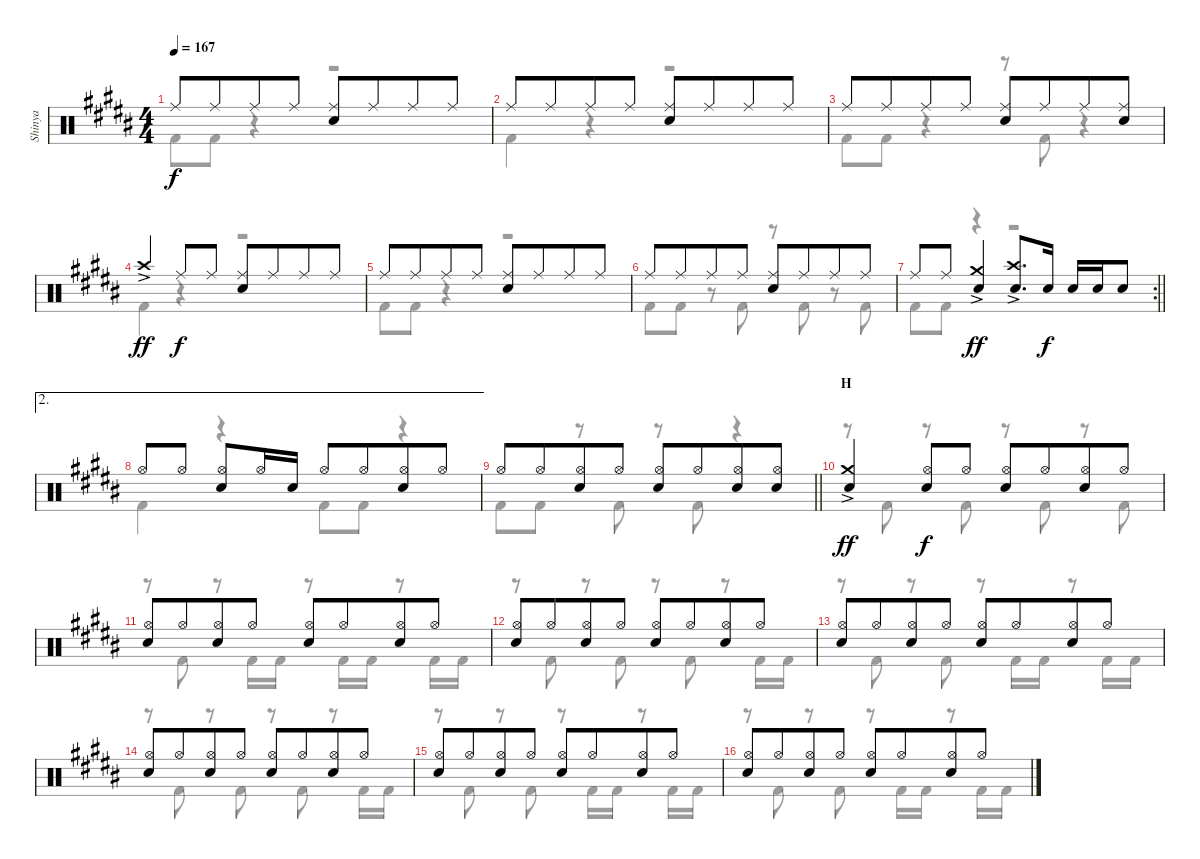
\track ("Shinya" "Shinya") {instrument percussion}
\staff {score}
\articulation defaults
\voice
\ts (4 4)
\tempo 167
\clef neutral
\ks g#minor "Ride (middle)".8{dy f} "Ride (middle)".8{beam merge} "Ride (middle)".8 "Ride (middle)".8
("Ride (middle)" "Snare (hit) 2").8 "Ride (middle)".8{beam merge} "Ride (middle)".8 "Ride (middle)".8 |
"Ride (middle)".8 "Ride (middle)".8{beam merge} "Ride (middle)".8 "Ride (middle)".8 ("Ride (middle)" "Snare (hit) 2").8 "Ride (middle)".8{beam merge} "Ride (middle)".8 "Ride (middle)".8 |
"Ride (middle)".8 "Ride (middle)".8{beam merge} "Ride (middle)".8 "Ride (middle)".8 ("Ride (middle)" "Snare (hit) 2").8 "Ride (middle)".8{beam merge} "Ride (middle)".8 ("Ride (middle)" "Snare (hit) 2").8 |
"Crash high (hit)"{ac}.4{dy ff} "Ride (middle)".8{dy f} "Ride (middle)".8 ("Ride (middle)" "Snare (hit) 2").8 "Ride (middle)".8{beam merge} "Ride (middle)".8 "Ride (middle)".8 |
"Ride (middle)".8 "Ride (middle)".8{beam merge} "Ride (middle)".8 "Ride (middle)".8 ("Ride (middle)" "Snare (hit) 2").8 "Ride (middle)".8{beam merge} "Ride (middle)".8 "Ride (middle)".8 |
"Ride (middle)".8 "Ride (middle)".8{beam merge} "Ride (middle)".8 "Ride (middle)".8 ("Ride (middle)" "Snare (hit) 2").8 "Ride (middle)".8{beam merge} "Ride (middle)".8 "Ride (middle)".8 |
\rc 2
\barLineRight lightlight "Ride (middle)".8 "Ride (middle)".8
("Crash medium (hit)"{ac} "Snare (hit) 2").4{dy ff} ("Crash high (hit)"{ac} "Snare (hit) 2").8{d} "Snare (hit) 2".16{dy f} "Snare (hit) 2".16 "Snare (hit) 2".16 "Snare (hit) 2".8 |
\ae 2
\section ("" "")
"Hi-Hat (open)".8 "Hi-Hat (open)".8 ("Hi-Hat (open)" "Snare (hit) 2").8 "Hi-Hat (open)".16 "Snare (hit) 2".16 "Hi-Hat (open)".8 "Hi-Hat (open)".8{beam merge} ("Hi-Hat (open)" "Snare (hit) 2").8 "Hi-Hat (open)".8 |
\barLineRight lightlight "Hi-Hat (open)".8 "Hi-Hat (open)".8{beam merge}
("Hi-Hat (open)" "Snare (hit) 2").8 "Hi-Hat (open)".8 ("Hi-Hat (open)" "Snare (hit) 2").8 "Hi-Hat (open)".8{beam merge} ("Hi-Hat (open)" "Snare (hit) 2").8 ("Hi-Hat (open)" "Snare (hit) 2").8 |
\section ("" "H")
("Crash medium (hit)"{ac} "Snare (hit) 2").4{dy ff} ("Hi-Hat (open)" "Snare (hit) 2").8{dy f} "Hi-Hat (open)".8 ("Hi-Hat (open)" "Snare (hit) 2").8 "Hi-Hat (open)".8{beam merge} ("Hi-Hat (open)" "Snare (hit) 2").8 "Hi-Hat (open)".8 |
("Hi-Hat (open)" "Snare (hit) 2").8 "Hi-Hat (open)".8{beam merge} ("Hi-Hat (open)" "Snare (hit) 2").8 "Hi-Hat (open)".8 ("Hi-Hat (open)" "Snare (hit) 2").8 "Hi-Hat (open)".8{beam merge} ("Hi-Hat (open)" "Snare (hit) 2").8 "Hi-Hat (open)".8 |
("Hi-Hat (open)" "Snare (hit) 2").8 "Hi-Hat (open)".8{beam merge} ("Hi-Hat (open)" "Snare (hit) 2").8 "Hi-Hat (open)".8 ("Hi-Hat (open)" "Snare (hit) 2").8 "Hi-Hat (open)".8{beam merge} ("Hi-Hat (open)" "Snare (hit) 2").8 "Hi-Hat (open)".8 |
("Hi-Hat (open)" "Snare (hit) 2").8 "Hi-Hat (open)".8{beam merge} ("Hi-Hat (open)" "Snare (hit) 2").8 "Hi-Hat (open)".8 ("Hi-Hat (open)" "Snare (hit) 2").8 "Hi-Hat (open)".8{beam merge} ("Hi-Hat (open)" "Snare (hit) 2").8 "Hi-Hat (open)".8 |
("Hi-Hat (open)" "Snare (hit) 2").8 "Hi-Hat (open)".8{beam merge} ("Hi-Hat (open)" "Snare (hit) 2").8 "Hi-Hat (open)".8 ("Hi-Hat (open)" "Snare (hit) 2").8 "Hi-Hat (open)".8{beam merge} ("Hi-Hat (open)" "Snare (hit) 2").8 "Hi-Hat (open)".8 |
("Hi-Hat (open)" "Snare (hit) 2").8 "Hi-Hat (open)".8{beam merge} ("Hi-Hat (open)" "Snare (hit) 2").8 "Hi-Hat (open)".8 ("Hi-Hat (open)" "Snare (hit) 2").8 "Hi-Hat (open)".8{beam merge} ("Hi-Hat (open)" "Snare (hit) 2").8 "Hi-Hat (open)".8 |
("Hi-Hat (open)" "Snare (hit) 2").8 "Hi-Hat (open)".8{beam merge} ("Hi-Hat (open)" "Snare (hit) 2").8 "Hi-Hat (open)".8 ("Hi-Hat (open)" "Snare (hit) 2").8 "Hi-Hat (open)".8{beam merge} ("Hi-Hat (open)" "Snare (hit) 2").8 "Hi-Hat (open)".8
\voice
\clef neutral
\ottava regular
\simile none
\ks g#minor "Kick (hit) 2".8{dy f} "Kick (hit) 2".8
r.4 r.2 |
"Kick (hit) 2".4 r.4 r.2 |
"Kick (hit) 2".8 "Kick (hit) 2".8 r.4 r.8 "Kick (hit) 2".8 r.4 |
"Kick (hit) 2".4 r.4 r.2 |
"Kick (hit) 2".8 "Kick (hit) 2".8 r.4 r.2 |
"Kick (hit) 2".8 "Kick (hit) 2".8 r.8 "Kick (hit) 2".8 r.8 "Kick (hit) 2".8 r.8 "Kick (hit) 2".8 |
\barLineRight lightlight "Kick (hit) 2".8 "Kick (hit) 2".8
r.4 r.2 |
"Kick (hit) 2".4 r.4 "Kick (hit) 2".8 "Kick (hit) 2".8 r.4 |
\barLineRight lightlight "Kick (hit) 2".8 "Kick (hit) 2".8
r.8 "Kick (hit) 2".8 r.8 "Kick (hit) 2".8 r.4 |
r.8 "Kick (hit) 2".8 r.8 "Kick (hit) 2".8 r.8 "Kick (hit) 2".8 r.8 "Kick (hit) 2".8 |
r.8 "Kick (hit) 2".8 r.8 "Kick (hit) 2".16 "Kick (hit) 2".16 r.8 "Kick (hit) 2".16 "Kick (hit) 2".16 r.8 "Kick (hit) 2".16 "Kick (hit) 2".16 |
r.8 "Kick (hit) 2".8 r.8 "Kick (hit) 2".8 r.8 "Kick (hit) 2".8 r.8 "Kick (hit) 2".16 "Kick (hit) 2".16 |
r.8 "Kick (hit) 2".8 r.8 "Kick (hit) 2".8 r.8 "Kick (hit) 2".16 "Kick (hit) 2".16 r.8 "Kick (hit) 2".16 "Kick (hit) 2".16 |
r.8 "Kick (hit) 2".8 r.8 "Kick (hit) 2".8 r.8 "Kick (hit) 2".8 r.8 "Kick (hit) 2".16 "Kick (hit) 2".16 |
r.8 "Kick (hit) 2".8 r.8 "Kick (hit) 2".8 r.8 "Kick (hit) 2".16 "Kick (hit) 2".16 r.8 "Kick (hit) 2".16 "Kick (hit) 2".16 |
r.8 "Kick (hit) 2".8 r.8 "Kick (hit) 2".8 r.8 "Kick (hit) 2".16 "Kick (hit) 2".16 r.8 "Kick (hit) 2".16 "Kick (hit) 2".16
